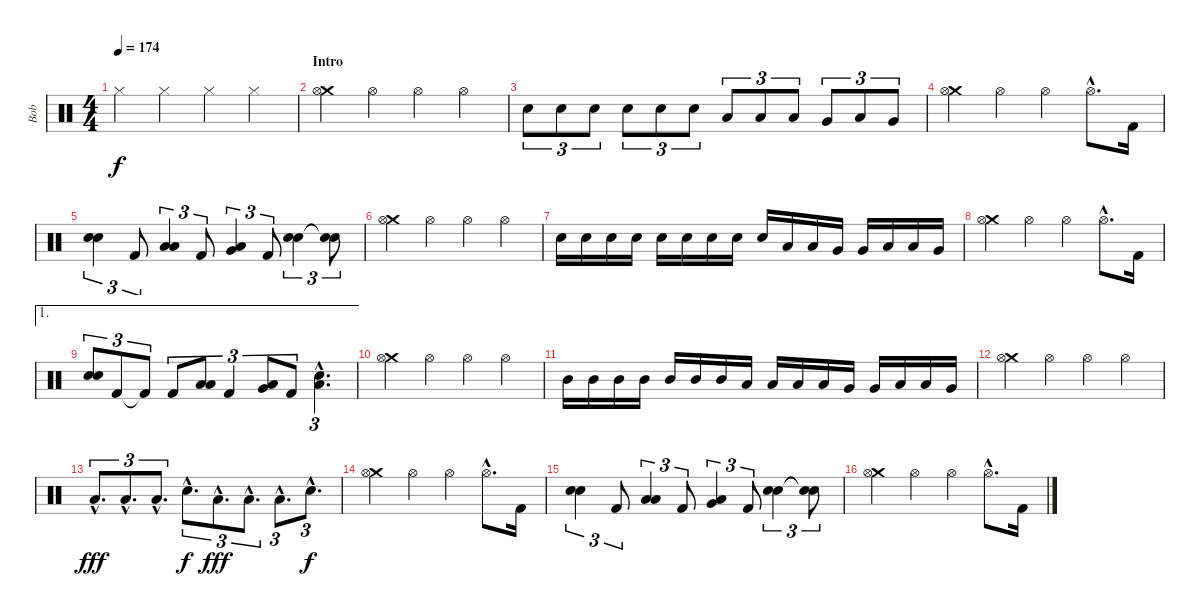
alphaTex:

\track ("Bob" "Bob") {instrument percussion}
\staff {score}
\articulation defaults
\ts (4 4)
\tempo 174
\clef neutral
\ks c "Hi-Hat (closed)".4{dy f} "Hi-Hat (closed)".4 "Hi-Hat (closed)".4 "Hi-Hat (closed)".4
|
\section ("" "Intro")
("Crash medium (hit)" "Hi-Hat (open)").4 "Hi-Hat (open)".4 "Hi-Hat (open)".4 "Hi-Hat (open)".4 |
"Snare (hit) 2".8{tu (3 2)} "Snare (hit) 2".8{tu (3 2)} "Snare (hit) 2".8{tu (3 2)} "Snare (hit) 2".8{tu (3 2)} "Snare (hit) 2".8{tu (3 2)} "Snare (hit) 2".8{tu (3 2)} "Low Tom (hit)".8{tu (3 2)} "Low Tom (hit)".8{tu (3 2)} "Low Tom (hit)".8{tu (3 2)} "Very Low Tom (hit)".8{tu (3 2)} "Low Floor Tom (hit)".8{tu (3 2)} "Very Low Tom (hit)".8{tu (3 2)} |
("Crash medium (hit)" "Hi-Hat (open)").4 "Hi-Hat (open)".4 "Hi-Hat (open)".4 "Hi-Hat (open)"{hac}.8{d} "Kick (hit) 2".16 |
("Electric Snare (hit)" "Snare (hit) 2").4{tu (3 2)} "Kick (hit) 2".8{tu (3 2)} ("Low Tom (hit)" "Low Floor Tom (hit)").4{tu (3 2)} "Kick (hit) 2".8{tu (3 2)} ("Very Low Tom (hit)" "Low Floor Tom (hit)").4{tu (3 2)} "Kick (hit) 2".8{tu (3 2)} ("Electric Snare (hit)" "Snare (hit) 2").4{tu (3 2)} ("Snare (hit)"{t} "Snare (hit)"{t}).8{tu (3 2)} |
("Crash medium (hit)" "Hi-Hat (open)").4 "Hi-Hat (open)".4 "Hi-Hat (open)".4 "Hi-Hat (open)".4 |
"Snare (hit) 2".16 "Snare (hit) 2".16 "Snare (hit) 2".16 "Snare (hit) 2".16 "Snare (hit) 2".16 "Snare (hit) 2".16 "Snare (hit) 2".16 "Snare (hit) 2".16 "Snare (hit) 2".16 "Low Tom (hit)".16 "Low Tom (hit)".16 "Very Low Tom (hit)".16 "Very Low Tom (hit)".16 "Low Floor Tom (hit)".16 "Low Floor Tom (hit)".16 "Very Low Tom (hit)".16 |
("Crash medium (hit)" "Hi-Hat (open)").4 "Hi-Hat (open)".4 "Hi-Hat (open)".4 "Hi-Hat (open)"{hac}.8{d} "Kick (hit) 2".16 |
\ae 1
("Electric Snare (hit)" "Snare (hit) 2").8{tu (3 2)} "Kick (hit) 2".8{tu (3 2)} "Kick (hit) 2"{t}.8{tu (3 2)} "Kick (hit) 2".8{tu (3 2)} ("Low Tom (hit)" "Low Floor Tom (hit)").8{tu (3 2)} "Kick (hit) 2".4{tu (3 2)} ("Very Low Tom (hit)" "Low Floor Tom (hit)").8{tu (3 2)} "Kick (hit) 2".8{tu (3 2)} ("Snare (hit) 2"{hac} "Low Floor Tom (hit)"{hac}).4{d tu (3 2)} |
("Crash medium (hit)" "Hi-Hat (open)").4 "Hi-Hat (open)".4 "Hi-Hat (open)".4 "Hi-Hat (open)".4 |
"Mid Tom (hit)".16 "Mid Tom (hit)".16 "Mid Tom (hit)".16 "Mid Tom (hit)".16 "Mid Tom (hit)".16 "Mid Tom (hit)".16 "Mid Tom (hit)".16 "Low Floor Tom (hit)".16 "Low Tom (hit)".16 "Low Tom (hit)".16 "Low Tom (hit)".16 "Very Low Tom (hit)".16 "Very Low Tom (hit)".16 "Low Floor Tom (hit)".16 "Low Floor Tom (hit)".16 "Very Low Tom (hit)".16 |
("Crash medium (hit)" "Hi-Hat (open)").4 "Hi-Hat (open)".4 "Hi-Hat (open)".4 "Hi-Hat (open)".4 |
"Low Tom (hit)"{hac}.8{d tu (3 2) dy fff} "Low Tom (hit)"{hac}.8{d tu (3 2)} "Low Floor Tom (hit)"{hac}.8{d tu (3 2)} "Snare (hit) 2"{hac}.8{d tu (3 2) dy f} "Low Tom (hit)"{hac}.8{d tu (3 2) dy fff} "Low Tom (hit)"{hac}.8{d tu (3 2)} "Low Floor Tom (hit)"{hac}.8{d tu (3 2)} "Snare (hit) 2"{hac}.8{d tu (3 2) dy f} |
("Crash medium (hit)" "Hi-Hat (open)").4 "Hi-Hat (open)".4 "Hi-Hat (open)".4 "Hi-Hat (open)"{hac}.8{d} "Kick (hit) 2".16 |
("Electric Snare (hit)" "Snare (hit) 2").4{tu (3 2)} "Kick (hit) 2".8{tu (3 2)} ("Low Tom (hit)" "Low Floor Tom (hit)").4{tu (3 2)} "Kick (hit) 2".8{tu (3 2)} ("Very Low Tom (hit)" "Low Floor Tom (hit)").4{tu (3 2)} "Kick (hit) 2".8{tu (3 2)} ("Electric Snare (hit)" "Snare (hit) 2").4{tu (3 2)} ("Snare (hit)"{t} "Snare (hit)"{t}).8{tu (3 2)} |
("Crash medium (hit)" "Hi-Hat (open)").4 "Hi-Hat (open)".4 "Hi-Hat (open)".4 "Hi-Hat (open)"{hac}.8{d} "Kick (hit) 2".16
